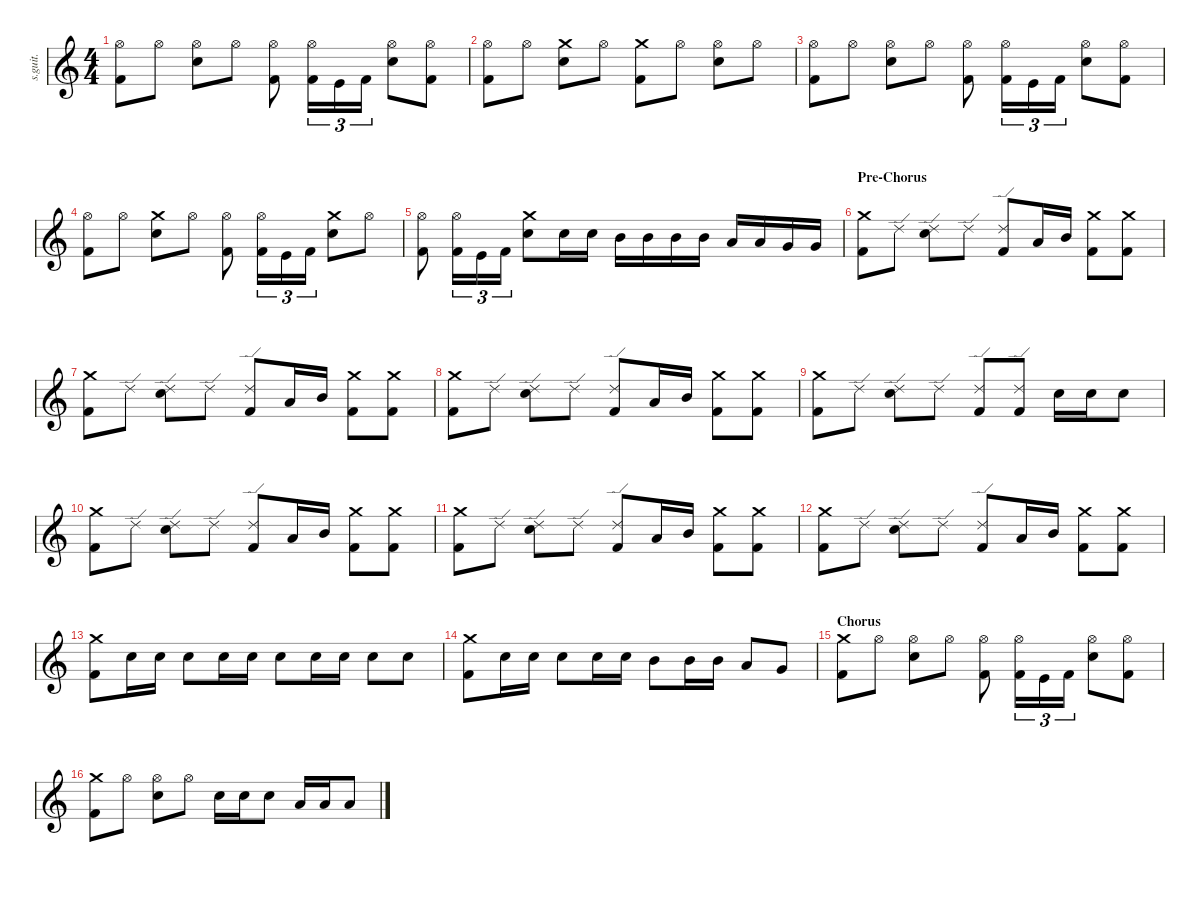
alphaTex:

\defaultSystemsLayout 4
\hideDynamics
\bracketExtendMode nobrackets
\track ("Lars Ulrich - Drums" "s.guit.") {instrument percussion}
\staff {score}
\articulation defaults
\ts (4 4)
\tempo (140 hide)
\clef g2
\ks c
("Hi-Hat (open)" "Kick (hit) 2").8{lyrics (0 "") lyrics (1 "") lyrics (2 "") lyrics (3 "") lyrics (4 "") dy f} "Hi-Hat (open)".8{lyrics (0 "") lyrics (1 "") lyrics (2 "") lyrics (3 "") lyrics (4 "")} ("Hi-Hat (open)" "Snare (hit) 2").8{lyrics (0 "") lyrics (1 "") lyrics (2 "") lyrics (3 "") lyrics (4 "")} "Hi-Hat (open)".8{lyrics (0 "") lyrics (1 "") lyrics (2 "") lyrics (3 "") lyrics (4 "")} ("Hi-Hat (open)" "Kick (hit) 2").8{lyrics (0 "") lyrics (1 "") lyrics (2 "") lyrics (3 "") lyrics (4 "")} ("Hi-Hat (open)" "Kick (hit) 2").16{tu (3 2) lyrics (0 "") lyrics (1 "") lyrics (2 "") lyrics (3 "") lyrics (4 "")} "Kick (hit)".16{tu (3 2) lyrics (0 "") lyrics (1 "") lyrics (2 "") lyrics (3 "") lyrics (4 "")} "Kick (hit) 2".16{tu (3 2) lyrics (0 "") lyrics (1 "") lyrics (2 "") lyrics (3 "") lyrics (4 "")} ("Hi-Hat (open)" "Snare (hit) 2").8{lyrics (0 "") lyrics (1 "") lyrics (2 "") lyrics (3 "") lyrics (4 "")} ("Hi-Hat (open)" "Kick (hit) 2").8{lyrics (0 "") lyrics (1 "") lyrics (2 "") lyrics (3 "") lyrics (4 "")} |
("Hi-Hat (open)" "Kick (hit) 2").8{lyrics (0 "") lyrics (1 "") lyrics (2 "") lyrics (3 "") lyrics (4 "")} "Hi-Hat (open)".8{lyrics (0 "") lyrics (1 "") lyrics (2 "") lyrics (3 "") lyrics (4 "")} ("Crash medium (hit)" "Snare (hit) 2").8{lyrics (0 "") lyrics (1 "") lyrics (2 "") lyrics (3 "") lyrics (4 "")} "Hi-Hat (open)".8{lyrics (0 "") lyrics (1 "") lyrics (2 "") lyrics (3 "") lyrics (4 "")} ("Crash medium (hit)" "Kick (hit) 2").8{lyrics (0 "") lyrics (1 "") lyrics (2 "") lyrics (3 "") lyrics (4 "")} "Hi-Hat (open)".8{lyrics (0 "") lyrics (1 "") lyrics (2 "") lyrics (3 "") lyrics (4 "")} ("Hi-Hat (open)" "Snare (hit) 2").8{lyrics (0 "") lyrics (1 "") lyrics (2 "") lyrics (3 "") lyrics (4 "")} "Hi-Hat (open)".8{lyrics (0 "") lyrics (1 "") lyrics (2 "") lyrics (3 "") lyrics (4 "")} |
("Hi-Hat (open)" "Kick (hit) 2").8{lyrics (0 "") lyrics (1 "") lyrics (2 "") lyrics (3 "") lyrics (4 "")} "Hi-Hat (open)".8{lyrics (0 "") lyrics (1 "") lyrics (2 "") lyrics (3 "") lyrics (4 "")} ("Hi-Hat (open)" "Snare (hit) 2").8{lyrics (0 "") lyrics (1 "") lyrics (2 "") lyrics (3 "") lyrics (4 "")} "Hi-Hat (open)".8{lyrics (0 "") lyrics (1 "") lyrics (2 "") lyrics (3 "") lyrics (4 "")} ("Hi-Hat (open)" "Kick (hit) 2").8{lyrics (0 "") lyrics (1 "") lyrics (2 "") lyrics (3 "") lyrics (4 "")} ("Hi-Hat (open)" "Kick (hit) 2").16{tu (3 2) lyrics (0 "") lyrics (1 "") lyrics (2 "") lyrics (3 "") lyrics (4 "")} "Kick (hit)".16{tu (3 2) lyrics (0 "") lyrics (1 "") lyrics (2 "") lyrics (3 "") lyrics (4 "")} "Kick (hit) 2".16{tu (3 2) lyrics (0 "") lyrics (1 "") lyrics (2 "") lyrics (3 "") lyrics (4 "")} ("Hi-Hat (open)" "Snare (hit) 2").8{lyrics (0 "") lyrics (1 "") lyrics (2 "") lyrics (3 "") lyrics (4 "")} ("Hi-Hat (open)" "Kick (hit) 2").8{lyrics (0 "") lyrics (1 "") lyrics (2 "") lyrics (3 "") lyrics (4 "")} |
("Hi-Hat (open)" "Kick (hit) 2").8{lyrics (0 "") lyrics (1 "") lyrics (2 "") lyrics (3 "") lyrics (4 "")} "Hi-Hat (open)".8{lyrics (0 "") lyrics (1 "") lyrics (2 "") lyrics (3 "") lyrics (4 "")} ("Crash medium (hit)" "Snare (hit) 2").8{lyrics (0 "") lyrics (1 "") lyrics (2 "") lyrics (3 "") lyrics (4 "")} "Hi-Hat (open)".8{lyrics (0 "") lyrics (1 "") lyrics (2 "") lyrics (3 "") lyrics (4 "")} ("Hi-Hat (open)" "Kick (hit) 2").8{lyrics (0 "") lyrics (1 "") lyrics (2 "") lyrics (3 "") lyrics (4 "")} ("Hi-Hat (open)" "Kick (hit) 2").16{tu (3 2) lyrics (0 "") lyrics (1 "") lyrics (2 "") lyrics (3 "") lyrics (4 "")} "Kick (hit)".16{tu (3 2) lyrics (0 "") lyrics (1 "") lyrics (2 "") lyrics (3 "") lyrics (4 "")} "Kick (hit) 2".16{tu (3 2) lyrics (0 "") lyrics (1 "") lyrics (2 "") lyrics (3 "") lyrics (4 "")} ("Crash medium (hit)" "Snare (hit) 2").8{lyrics (0 "") lyrics (1 "") lyrics (2 "") lyrics (3 "") lyrics (4 "")} "Hi-Hat (open)".8{lyrics (0 "") lyrics (1 "") lyrics (2 "") lyrics (3 "") lyrics (4 "")} |
("Hi-Hat (open)" "Kick (hit) 2").8{lyrics (0 "") lyrics (1 "") lyrics (2 "") lyrics (3 "") lyrics (4 "")} ("Hi-Hat (open)" "Kick (hit) 2").16{tu (3 2) lyrics (0 "") lyrics (1 "") lyrics (2 "") lyrics (3 "") lyrics (4 "")} "Kick (hit)".16{tu (3 2) lyrics (0 "") lyrics (1 "") lyrics (2 "") lyrics (3 "") lyrics (4 "")} "Kick (hit) 2".16{tu (3 2) lyrics (0 "") lyrics (1 "") lyrics (2 "") lyrics (3 "") lyrics (4 "")} ("Crash medium (hit)" "Snare (hit) 2").8{lyrics (0 "") lyrics (1 "") lyrics (2 "") lyrics (3 "") lyrics (4 "")} "Snare (hit) 2".16{lyrics (0 "") lyrics (1 "") lyrics (2 "") lyrics (3 "") lyrics (4 "")} "Snare (hit) 2".16{lyrics (0 "") lyrics (1 "") lyrics (2 "") lyrics (3 "") lyrics (4 "")} "Mid Tom (hit)".16{lyrics (0 "") lyrics (1 "") lyrics (2 "") lyrics (3 "") lyrics (4 "") dy fff} "Mid Tom (hit)".16{lyrics (0 "") lyrics (1 "") lyrics (2 "") lyrics (3 "") lyrics (4 "")} "Mid Tom (hit)".16{lyrics (0 "") lyrics (1 "") lyrics (2 "") lyrics (3 "") lyrics (4 "")} "Mid Tom (hit)".16{lyrics (0 "") lyrics (1 "") lyrics (2 "") lyrics (3 "") lyrics (4 "")} "Low Tom (hit)".16{lyrics (0 "") lyrics (1 "") lyrics (2 "") lyrics (3 "") lyrics (4 "")} "Low Tom (hit)".16{lyrics (0 "") lyrics (1 "") lyrics (2 "") lyrics (3 "") lyrics (4 "")} "Very Low Tom (hit)".16{lyrics (0 "") lyrics (1 "") lyrics (2 "") lyrics (3 "") lyrics (4 "") dy ff} "Very Low Tom (hit)".16{lyrics (0 "") lyrics (1 "") lyrics (2 "") lyrics (3 "") lyrics (4 "")} |
\section ("" "Pre-Chorus")
("Crash medium (hit)" "Kick (hit) 2").8{lyrics (0 "") lyrics (1 "") lyrics (2 "") lyrics (3 "") lyrics (4 "") dy f} "Ride (edge) 2".8{lyrics (0 "") lyrics (1 "") lyrics (2 "") lyrics (3 "") lyrics (4 "")} ("Ride (edge) 2" "Snare (hit) 2").8{lyrics (0 "") lyrics (1 "") lyrics (2 "") lyrics (3 "") lyrics (4 "")} "Ride (edge) 2".8{lyrics (0 "") lyrics (1 "") lyrics (2 "") lyrics (3 "") lyrics (4 "")} ("Ride (edge) 2" "Kick (hit) 2").8{lyrics (0 "") lyrics (1 "") lyrics (2 "") lyrics (3 "") lyrics (4 "")} "Low Tom (hit)".16{lyrics (0 "") lyrics (1 "") lyrics (2 "") lyrics (3 "") lyrics (4 "") dy fff} "Mid Tom (hit)".16{lyrics (0 "") lyrics (1 "") lyrics (2 "") lyrics (3 "") lyrics (4 "")} ("Crash medium (hit)" "Kick (hit) 2").8{lyrics (0 "") lyrics (1 "") lyrics (2 "") lyrics (3 "") lyrics (4 "") dy f} ("Crash medium (hit)" "Kick (hit) 2").8{lyrics (0 "") lyrics (1 "") lyrics (2 "") lyrics (3 "") lyrics (4 "")} |
("Crash medium (hit)" "Kick (hit) 2").8{lyrics (0 "") lyrics (1 "") lyrics (2 "") lyrics (3 "") lyrics (4 "")} "Ride (edge) 2".8{lyrics (0 "") lyrics (1 "") lyrics (2 "") lyrics (3 "") lyrics (4 "")} ("Ride (edge) 2" "Snare (hit) 2").8{lyrics (0 "") lyrics (1 "") lyrics (2 "") lyrics (3 "") lyrics (4 "")} "Ride (edge) 2".8{lyrics (0 "") lyrics (1 "") lyrics (2 "") lyrics (3 "") lyrics (4 "")} ("Ride (edge) 2" "Kick (hit) 2").8{lyrics (0 "") lyrics (1 "") lyrics (2 "") lyrics (3 "") lyrics (4 "")} "Low Tom (hit)".16{lyrics (0 "") lyrics (1 "") lyrics (2 "") lyrics (3 "") lyrics (4 "") dy fff} "Mid Tom (hit)".16{lyrics (0 "") lyrics (1 "") lyrics (2 "") lyrics (3 "") lyrics (4 "")} ("Crash medium (hit)" "Kick (hit) 2").8{lyrics (0 "") lyrics (1 "") lyrics (2 "") lyrics (3 "") lyrics (4 "") dy f} ("Crash medium (hit)" "Kick (hit) 2").8{lyrics (0 "") lyrics (1 "") lyrics (2 "") lyrics (3 "") lyrics (4 "")} |
("Crash medium (hit)" "Kick (hit) 2").8{lyrics (0 "") lyrics (1 "") lyrics (2 "") lyrics (3 "") lyrics (4 "")} "Ride (edge) 2".8{lyrics (0 "") lyrics (1 "") lyrics (2 "") lyrics (3 "") lyrics (4 "")} ("Ride (edge) 2" "Snare (hit) 2").8{lyrics (0 "") lyrics (1 "") lyrics (2 "") lyrics (3 "") lyrics (4 "")} "Ride (edge) 2".8{lyrics (0 "") lyrics (1 "") lyrics (2 "") lyrics (3 "") lyrics (4 "")} ("Ride (edge) 2" "Kick (hit) 2").8{lyrics (0 "") lyrics (1 "") lyrics (2 "") lyrics (3 "") lyrics (4 "")} "Low Tom (hit)".16{lyrics (0 "") lyrics (1 "") lyrics (2 "") lyrics (3 "") lyrics (4 "") dy fff} "Mid Tom (hit)".16{lyrics (0 "") lyrics (1 "") lyrics (2 "") lyrics (3 "") lyrics (4 "")} ("Crash medium (hit)" "Kick (hit) 2").8{lyrics (0 "") lyrics (1 "") lyrics (2 "") lyrics (3 "") lyrics (4 "") dy f} ("Crash medium (hit)" "Kick (hit) 2").8{lyrics (0 "") lyrics (1 "") lyrics (2 "") lyrics (3 "") lyrics (4 "")} |
("Crash medium (hit)" "Kick (hit) 2").8{lyrics (0 "") lyrics (1 "") lyrics (2 "") lyrics (3 "") lyrics (4 "")} "Ride (edge) 2".8{lyrics (0 "") lyrics (1 "") lyrics (2 "") lyrics (3 "") lyrics (4 "")} ("Ride (edge) 2" "Snare (hit) 2").8{lyrics (0 "") lyrics (1 "") lyrics (2 "") lyrics (3 "") lyrics (4 "")} "Ride (edge) 2".8{lyrics (0 "") lyrics (1 "") lyrics (2 "") lyrics (3 "") lyrics (4 "")} ("Ride (edge) 2" "Kick (hit) 2").8{lyrics (0 "") lyrics (1 "") lyrics (2 "") lyrics (3 "") lyrics (4 "")} ("Ride (edge) 2" "Kick (hit) 2").8{lyrics (0 "") lyrics (1 "") lyrics (2 "") lyrics (3 "") lyrics (4 "")} "Snare (hit) 2".16{lyrics (0 "") lyrics (1 "") lyrics (2 "") lyrics (3 "") lyrics (4 "") dy ff} "Snare (hit) 2".16{lyrics (0 "") lyrics (1 "") lyrics (2 "") lyrics (3 "") lyrics (4 "")} "Snare (hit) 2".8{lyrics (0 "") lyrics (1 "") lyrics (2 "") lyrics (3 "") lyrics (4 "")} |
("Crash medium (hit)" "Kick (hit) 2").8{lyrics (0 "") lyrics (1 "") lyrics (2 "") lyrics (3 "") lyrics (4 "") dy f} "Ride (edge) 2".8{lyrics (0 "") lyrics (1 "") lyrics (2 "") lyrics (3 "") lyrics (4 "")} ("Ride (edge) 2" "Snare (hit) 2").8{lyrics (0 "") lyrics (1 "") lyrics (2 "") lyrics (3 "") lyrics (4 "")} "Ride (edge) 2".8{lyrics (0 "") lyrics (1 "") lyrics (2 "") lyrics (3 "") lyrics (4 "")} ("Ride (edge) 2" "Kick (hit) 2").8{lyrics (0 "") lyrics (1 "") lyrics (2 "") lyrics (3 "") lyrics (4 "")} "Low Tom (hit)".16{lyrics (0 "") lyrics (1 "") lyrics (2 "") lyrics (3 "") lyrics (4 "") dy fff} "Mid Tom (hit)".16{lyrics (0 "") lyrics (1 "") lyrics (2 "") lyrics (3 "") lyrics (4 "")} ("Crash medium (hit)" "Kick (hit) 2").8{lyrics (0 "") lyrics (1 "") lyrics (2 "") lyrics (3 "") lyrics (4 "") dy f} ("Crash medium (hit)" "Kick (hit) 2").8{lyrics (0 "") lyrics (1 "") lyrics (2 "") lyrics (3 "") lyrics (4 "")} |
("Crash medium (hit)" "Kick (hit) 2").8{lyrics (0 "") lyrics (1 "") lyrics (2 "") lyrics (3 "") lyrics (4 "")} "Ride (edge) 2".8{lyrics (0 "") lyrics (1 "") lyrics (2 "") lyrics (3 "") lyrics (4 "")} ("Ride (edge) 2" "Snare (hit) 2").8{lyrics (0 "") lyrics (1 "") lyrics (2 "") lyrics (3 "") lyrics (4 "")} "Ride (edge) 2".8{lyrics (0 "") lyrics (1 "") lyrics (2 "") lyrics (3 "") lyrics (4 "")} ("Ride (edge) 2" "Kick (hit) 2").8{lyrics (0 "") lyrics (1 "") lyrics (2 "") lyrics (3 "") lyrics (4 "")} "Low Tom (hit)".16{lyrics (0 "") lyrics (1 "") lyrics (2 "") lyrics (3 "") lyrics (4 "") dy fff} "Mid Tom (hit)".16{lyrics (0 "") lyrics (1 "") lyrics (2 "") lyrics (3 "") lyrics (4 "")} ("Crash medium (hit)" "Kick (hit) 2").8{lyrics (0 "") lyrics (1 "") lyrics (2 "") lyrics (3 "") lyrics (4 "") dy f} ("Crash medium (hit)" "Kick (hit) 2").8{lyrics (0 "") lyrics (1 "") lyrics (2 "") lyrics (3 "") lyrics (4 "")} |
("Crash medium (hit)" "Kick (hit) 2").8{lyrics (0 "") lyrics (1 "") lyrics (2 "") lyrics (3 "") lyrics (4 "")} "Ride (edge) 2".8{lyrics (0 "") lyrics (1 "") lyrics (2 "") lyrics (3 "") lyrics (4 "")} ("Ride (edge) 2" "Snare (hit) 2").8{lyrics (0 "") lyrics (1 "") lyrics (2 "") lyrics (3 "") lyrics (4 "")} "Ride (edge) 2".8{lyrics (0 "") lyrics (1 "") lyrics (2 "") lyrics (3 "") lyrics (4 "")} ("Ride (edge) 2" "Kick (hit) 2").8{lyrics (0 "") lyrics (1 "") lyrics (2 "") lyrics (3 "") lyrics (4 "")} "Low Tom (hit)".16{lyrics (0 "") lyrics (1 "") lyrics (2 "") lyrics (3 "") lyrics (4 "") dy fff} "Mid Tom (hit)".16{lyrics (0 "") lyrics (1 "") lyrics (2 "") lyrics (3 "") lyrics (4 "")} ("Crash medium (hit)" "Kick (hit) 2").8{lyrics (0 "") lyrics (1 "") lyrics (2 "") lyrics (3 "") lyrics (4 "") dy f} ("Crash medium (hit)" "Kick (hit) 2").8{lyrics (0 "") lyrics (1 "") lyrics (2 "") lyrics (3 "") lyrics (4 "")} |
("Crash medium (hit)" "Kick (hit) 2").8{lyrics (0 "") lyrics (1 "") lyrics (2 "") lyrics (3 "") lyrics (4 "")} "Snare (hit) 2".16{lyrics (0 "") lyrics (1 "") lyrics (2 "") lyrics (3 "") lyrics (4 "") dy p} "Snare (hit) 2".16{lyrics (0 "") lyrics (1 "") lyrics (2 "") lyrics (3 "") lyrics (4 "")} "Snare (hit) 2".8{lyrics (0 "") lyrics (1 "") lyrics (2 "") lyrics (3 "") lyrics (4 "") dy ff} "Snare (hit) 2".16{lyrics (0 "") lyrics (1 "") lyrics (2 "") lyrics (3 "") lyrics (4 "") dy p} "Snare (hit) 2".16{lyrics (0 "") lyrics (1 "") lyrics (2 "") lyrics (3 "") lyrics (4 "")} "Snare (hit) 2".8{lyrics (0 "") lyrics (1 "") lyrics (2 "") lyrics (3 "") lyrics (4 "") dy ff} "Snare (hit) 2".16{lyrics (0 "") lyrics (1 "") lyrics (2 "") lyrics (3 "") lyrics (4 "") dy p} "Snare (hit) 2".16{lyrics (0 "") lyrics (1 "") lyrics (2 "") lyrics (3 "") lyrics (4 "")} "Snare (hit) 2".8{lyrics (0 "") lyrics (1 "") lyrics (2 "") lyrics (3 "") lyrics (4 "") dy ff} "Snare (hit) 2".8{lyrics (0 "") lyrics (1 "") lyrics (2 "") lyrics (3 "") lyrics (4 "")} |
("Crash medium (hit)" "Kick (hit) 2").8{lyrics (0 "") lyrics (1 "") lyrics (2 "") lyrics (3 "") lyrics (4 "") dy f} "Snare (hit) 2".16{lyrics (0 "") lyrics (1 "") lyrics (2 "") lyrics (3 "") lyrics (4 "") dy p} "Snare (hit) 2".16{lyrics (0 "") lyrics (1 "") lyrics (2 "") lyrics (3 "") lyrics (4 "")} "Snare (hit) 2".8{lyrics (0 "") lyrics (1 "") lyrics (2 "") lyrics (3 "") lyrics (4 "") dy ff} "Snare (hit) 2".16{lyrics (0 "") lyrics (1 "") lyrics (2 "") lyrics (3 "") lyrics (4 "") dy p} "Snare (hit) 2".16{lyrics (0 "") lyrics (1 "") lyrics (2 "") lyrics (3 "") lyrics (4 "")} "Mid Tom (hit)".8{lyrics (0 "") lyrics (1 "") lyrics (2 "") lyrics (3 "") lyrics (4 "") dy fff} "Mid Tom (hit)".16{lyrics (0 "") lyrics (1 "") lyrics (2 "") lyrics (3 "") lyrics (4 "")} "Mid Tom (hit)".16{lyrics (0 "") lyrics (1 "") lyrics (2 "") lyrics (3 "") lyrics (4 "")} "Low Tom (hit)".8{lyrics (0 "") lyrics (1 "") lyrics (2 "") lyrics (3 "") lyrics (4 "")} "Very Low Tom (hit)".8{lyrics (0 "") lyrics (1 "") lyrics (2 "") lyrics (3 "") lyrics (4 "") dy ff} |
\section ("" "Chorus")
("Crash medium (hit)" "Kick (hit) 2").8{lyrics (0 "") lyrics (1 "") lyrics (2 "") lyrics (3 "") lyrics (4 "") dy f} "Hi-Hat (open)".8{lyrics (0 "") lyrics (1 "") lyrics (2 "") lyrics (3 "") lyrics (4 "")} ("Hi-Hat (open)" "Snare (hit) 2").8{lyrics (0 "") lyrics (1 "") lyrics (2 "") lyrics (3 "") lyrics (4 "")} "Hi-Hat (open)".8{lyrics (0 "") lyrics (1 "") lyrics (2 "") lyrics (3 "") lyrics (4 "")} ("Hi-Hat (open)" "Kick (hit) 2").8{lyrics (0 "") lyrics (1 "") lyrics (2 "") lyrics (3 "") lyrics (4 "")} ("Hi-Hat (open)" "Kick (hit) 2").16{tu (3 2) lyrics (0 "") lyrics (1 "") lyrics (2 "") lyrics (3 "") lyrics (4 "")} "Kick (hit)".16{tu (3 2) lyrics (0 "") lyrics (1 "") lyrics (2 "") lyrics (3 "") lyrics (4 "")} "Kick (hit) 2".16{tu (3 2) lyrics (0 "") lyrics (1 "") lyrics (2 "") lyrics (3 "") lyrics (4 "")} ("Hi-Hat (open)" "Snare (hit) 2").8{lyrics (0 "") lyrics (1 "") lyrics (2 "") lyrics (3 "") lyrics (4 "")} ("Hi-Hat (open)" "Kick (hit) 2").8{lyrics (0 "") lyrics (1 "") lyrics (2 "") lyrics (3 "") lyrics (4 "")} |
("Crash medium (hit)" "Kick (hit) 2").8{lyrics (0 "") lyrics (1 "") lyrics (2 "") lyrics (3 "") lyrics (4 "")} "Hi-Hat (open)".8{lyrics (0 "") lyrics (1 "") lyrics (2 "") lyrics (3 "") lyrics (4 "")} ("Hi-Hat (open)" "Snare (hit) 2").8{lyrics (0 "") lyrics (1 "") lyrics (2 "") lyrics (3 "") lyrics (4 "")} "Hi-Hat (open)".8{lyrics (0 "") lyrics (1 "") lyrics (2 "") lyrics (3 "") lyrics (4 "")} "Snare (hit) 2".16{lyrics (0 "") lyrics (1 "") lyrics (2 "") lyrics (3 "") lyrics (4 "") dy ff} "Snare (hit) 2".16{lyrics (0 "") lyrics (1 "") lyrics (2 "") lyrics (3 "") lyrics (4 "")} "Snare (hit) 2".8{lyrics (0 "") lyrics (1 "") lyrics (2 "") lyrics (3 "") lyrics (4 "")} "Low Tom (hit)".16{lyrics (0 "") lyrics (1 "") lyrics (2 "") lyrics (3 "") lyrics (4 "") dy fff} "Low Tom (hit)".16{lyrics (0 "") lyrics (1 "") lyrics (2 "") lyrics (3 "") lyrics (4 "")} "Low Tom (hit)".8{lyrics (0 "") lyrics (1 "") lyrics (2 "") lyrics (3 "") lyrics (4 "")}
